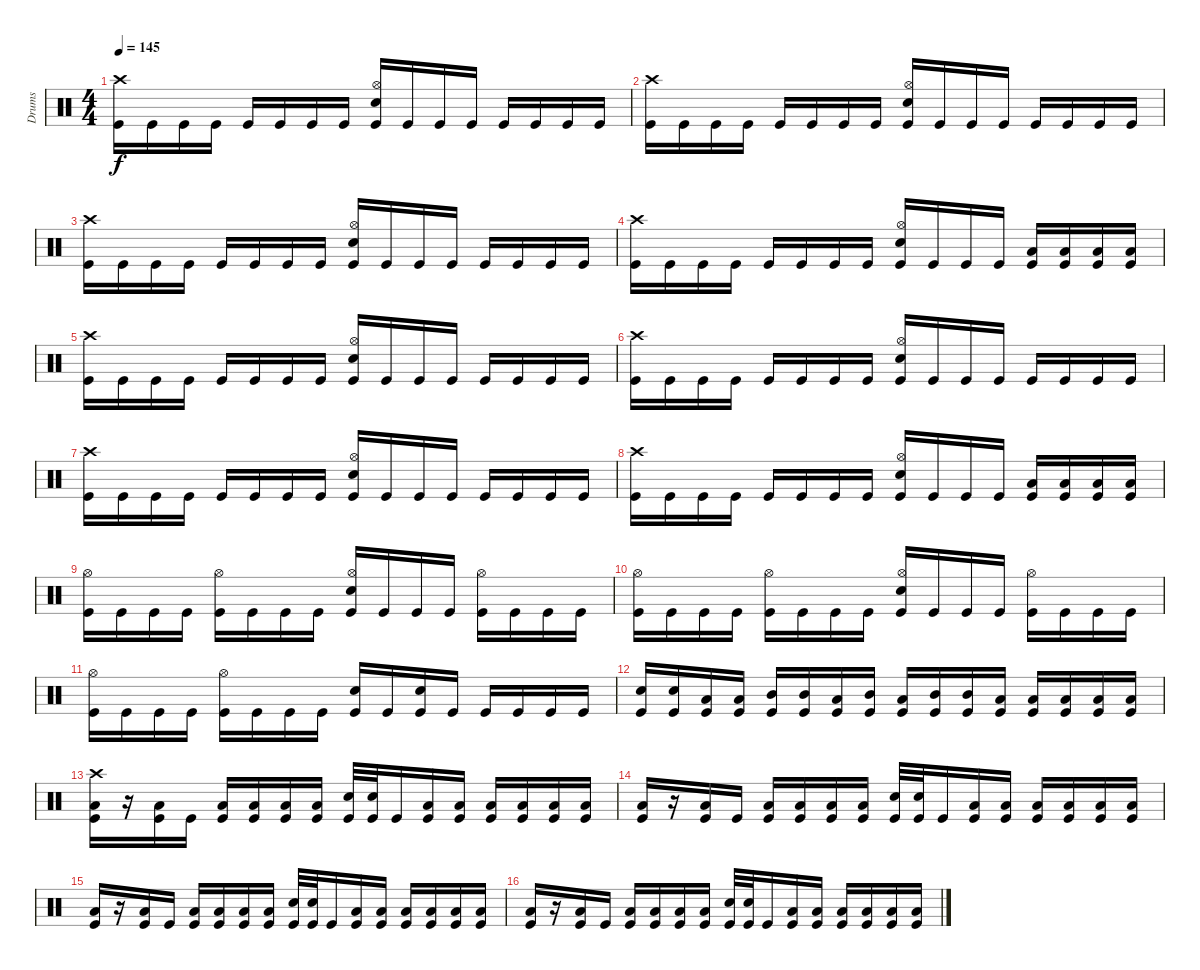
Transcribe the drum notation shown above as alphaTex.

\track ("Drums" "Drums") {instrument percussion}
\staff {score}
\articulation defaults
\ts (4 4)
\tempo 145
\clef neutral
\ks c
("Crash high (hit)" "Kick (hit)").16{dy f} "Kick (hit)".16 "Kick (hit)".16 "Kick (hit)".16 "Kick (hit)".16 "Kick (hit)".16 "Kick (hit)".16 "Kick (hit)".16 ("Hi-Hat (open)" "Electric Snare (hit)" "Kick (hit)").16 "Kick (hit)".16 "Kick (hit)".16 "Kick (hit)".16 "Kick (hit)".16 "Kick (hit)".16 "Kick (hit)".16 "Kick (hit)".16 |
("Crash high (hit)" "Kick (hit)").16 "Kick (hit)".16 "Kick (hit)".16 "Kick (hit)".16 "Kick (hit)".16 "Kick (hit)".16 "Kick (hit)".16 "Kick (hit)".16 ("Hi-Hat (open)" "Electric Snare (hit)" "Kick (hit)").16 "Kick (hit)".16 "Kick (hit)".16 "Kick (hit)".16 "Kick (hit)".16 "Kick (hit)".16 "Kick (hit)".16 "Kick (hit)".16 |
("Crash high (hit)" "Kick (hit)").16 "Kick (hit)".16 "Kick (hit)".16 "Kick (hit)".16 "Kick (hit)".16 "Kick (hit)".16 "Kick (hit)".16 "Kick (hit)".16 ("Hi-Hat (open)" "Electric Snare (hit)" "Kick (hit)").16 "Kick (hit)".16 "Kick (hit)".16 "Kick (hit)".16 "Kick (hit)".16 "Kick (hit)".16 "Kick (hit)".16 "Kick (hit)".16 |
("Crash high (hit)" "Kick (hit)").16 "Kick (hit)".16 "Kick (hit)".16 "Kick (hit)".16 "Kick (hit)".16 "Kick (hit)".16 "Kick (hit)".16 "Kick (hit)".16 ("Hi-Hat (open)" "Electric Snare (hit)" "Kick (hit)").16 "Kick (hit)".16 "Kick (hit)".16 "Kick (hit)".16 ("Low Tom (hit)" "Kick (hit)").16 ("Low Tom (hit)" "Kick (hit)").16 ("Low Tom (hit)" "Kick (hit)").16 ("Low Tom (hit)" "Kick (hit)").16 |
("Crash high (hit)" "Kick (hit)").16 "Kick (hit)".16 "Kick (hit)".16 "Kick (hit)".16 "Kick (hit)".16 "Kick (hit)".16 "Kick (hit)".16 "Kick (hit)".16 ("Hi-Hat (open)" "Electric Snare (hit)" "Kick (hit)").16 "Kick (hit)".16 "Kick (hit)".16 "Kick (hit)".16 "Kick (hit)".16 "Kick (hit)".16 "Kick (hit)".16 "Kick (hit)".16 |
("Crash high (hit)" "Kick (hit)").16 "Kick (hit)".16 "Kick (hit)".16 "Kick (hit)".16 "Kick (hit)".16 "Kick (hit)".16 "Kick (hit)".16 "Kick (hit)".16 ("Hi-Hat (open)" "Electric Snare (hit)" "Kick (hit)").16 "Kick (hit)".16 "Kick (hit)".16 "Kick (hit)".16 "Kick (hit)".16 "Kick (hit)".16 "Kick (hit)".16 "Kick (hit)".16 |
("Crash high (hit)" "Kick (hit)").16 "Kick (hit)".16 "Kick (hit)".16 "Kick (hit)".16 "Kick (hit)".16 "Kick (hit)".16 "Kick (hit)".16 "Kick (hit)".16 ("Hi-Hat (open)" "Electric Snare (hit)" "Kick (hit)").16 "Kick (hit)".16 "Kick (hit)".16 "Kick (hit)".16 "Kick (hit)".16 "Kick (hit)".16 "Kick (hit)".16 "Kick (hit)".16 |
("Crash high (hit)" "Kick (hit)").16 "Kick (hit)".16 "Kick (hit)".16 "Kick (hit)".16 "Kick (hit)".16 "Kick (hit)".16 "Kick (hit)".16 "Kick (hit)".16 ("Hi-Hat (open)" "Electric Snare (hit)" "Kick (hit)").16 "Kick (hit)".16 "Kick (hit)".16 "Kick (hit)".16 ("Low Tom (hit)" "Kick (hit)").16 ("Low Tom (hit)" "Kick (hit)").16 ("Low Tom (hit)" "Kick (hit)").16 ("Low Tom (hit)" "Kick (hit)").16 |
("Hi-Hat (open)" "Kick (hit)").16 "Kick (hit)".16 "Kick (hit)".16 "Kick (hit)".16 ("Hi-Hat (open)" "Kick (hit)").16 "Kick (hit)".16 "Kick (hit)".16 "Kick (hit)".16 ("Hi-Hat (open)" "Electric Snare (hit)" "Kick (hit)").16 "Kick (hit)".16 "Kick (hit)".16 "Kick (hit)".16 ("Hi-Hat (open)" "Kick (hit)").16 "Kick (hit)".16 "Kick (hit)".16 "Kick (hit)".16 |
("Hi-Hat (open)" "Kick (hit)").16 "Kick (hit)".16 "Kick (hit)".16 "Kick (hit)".16 ("Hi-Hat (open)" "Kick (hit)").16 "Kick (hit)".16 "Kick (hit)".16 "Kick (hit)".16 ("Hi-Hat (open)" "Electric Snare (hit)" "Kick (hit)").16 "Kick (hit)".16 "Kick (hit)".16 "Kick (hit)".16 ("Hi-Hat (open)" "Kick (hit)").16 "Kick (hit)".16 "Kick (hit)".16 "Kick (hit)".16 |
("Hi-Hat (open)" "Kick (hit)").16 "Kick (hit)".16 "Kick (hit)".16 "Kick (hit)".16 ("Hi-Hat (open)" "Kick (hit)").16 "Kick (hit)".16 "Kick (hit)".16 "Kick (hit)".16 ("Electric Snare (hit)" "Kick (hit)").16 "Kick (hit)".16 ("Electric Snare (hit)" "Kick (hit)").16 "Kick (hit)".16 "Kick (hit)".16 "Kick (hit)".16 "Kick (hit)".16 "Kick (hit)".16 |
("Electric Snare (hit)" "Kick (hit)").16 ("Electric Snare (hit)" "Kick (hit)").16 ("Low Tom (hit)" "Kick (hit)").16 ("Low Tom (hit)" "Kick (hit)").16 ("Mid Tom (hit)" "Kick (hit)").16 ("Mid Tom (hit)" "Kick (hit)").16 ("Low Tom (hit)" "Kick (hit)").16 ("Mid Tom (hit)" "Kick (hit)").16 ("Low Tom (hit)" "Kick (hit)").16 ("Mid Tom (hit)" "Kick (hit)").16 ("Mid Tom (hit)" "Kick (hit)").16 ("Low Tom (hit)" "Kick (hit)").16 ("Low Tom (hit)" "Kick (hit)").16 ("Low Tom (hit)" "Kick (hit)").16 ("Low Tom (hit)" "Kick (hit)").16 ("Low Tom (hit)" "Kick (hit)").16 |
("Crash high (hit)" "Low Tom (hit)" "Kick (hit)").16 r.16 ("Low Tom (hit)" "Kick (hit)").16 "Kick (hit)".16 ("Low Tom (hit)" "Kick (hit)").16 ("Low Tom (hit)" "Kick (hit)").16 ("Low Tom (hit)" "Kick (hit)").16 ("Low Tom (hit)" "Kick (hit)").16 ("Electric Snare (hit)" "Kick (hit)").32 ("Electric Snare (hit)" "Kick (hit)").32 "Kick (hit)".16 ("Low Tom (hit)" "Kick (hit)").16 ("Low Tom (hit)" "Kick (hit)").16 ("Low Tom (hit)" "Kick (hit)").16 ("Low Tom (hit)" "Kick (hit)").16 ("Low Tom (hit)" "Kick (hit)").16 ("Low Tom (hit)" "Kick (hit)").16 |
("Low Tom (hit)" "Kick (hit)").16 r.16 ("Low Tom (hit)" "Kick (hit)").16 "Kick (hit)".16 ("Low Tom (hit)" "Kick (hit)").16 ("Low Tom (hit)" "Kick (hit)").16 ("Low Tom (hit)" "Kick (hit)").16 ("Low Tom (hit)" "Kick (hit)").16 ("Electric Snare (hit)" "Kick (hit)").32 ("Electric Snare (hit)" "Kick (hit)").32 "Kick (hit)".16 ("Low Tom (hit)" "Kick (hit)").16 ("Low Tom (hit)" "Kick (hit)").16 ("Low Tom (hit)" "Kick (hit)").16 ("Low Tom (hit)" "Kick (hit)").16 ("Low Tom (hit)" "Kick (hit)").16 ("Low Tom (hit)" "Kick (hit)").16 |
("Low Tom (hit)" "Kick (hit)").16 r.16 ("Low Tom (hit)" "Kick (hit)").16 "Kick (hit)".16 ("Low Tom (hit)" "Kick (hit)").16 ("Low Tom (hit)" "Kick (hit)").16 ("Low Tom (hit)" "Kick (hit)").16 ("Low Tom (hit)" "Kick (hit)").16 ("Electric Snare (hit)" "Kick (hit)").32 ("Electric Snare (hit)" "Kick (hit)").32 "Kick (hit)".16 ("Low Tom (hit)" "Kick (hit)").16 ("Low Tom (hit)" "Kick (hit)").16 ("Low Tom (hit)" "Kick (hit)").16 ("Low Tom (hit)" "Kick (hit)").16 ("Low Tom (hit)" "Kick (hit)").16 ("Low Tom (hit)" "Kick (hit)").16 |
("Low Tom (hit)" "Kick (hit)").16 r.16 ("Low Tom (hit)" "Kick (hit)").16 "Kick (hit)".16 ("Low Tom (hit)" "Kick (hit)").16 ("Low Tom (hit)" "Kick (hit)").16 ("Low Tom (hit)" "Kick (hit)").16 ("Low Tom (hit)" "Kick (hit)").16 ("Electric Snare (hit)" "Kick (hit)").32 ("Electric Snare (hit)" "Kick (hit)").32 "Kick (hit)".16 ("Low Tom (hit)" "Kick (hit)").16 ("Low Tom (hit)" "Kick (hit)").16 ("Low Tom (hit)" "Kick (hit)").16 ("Low Tom (hit)" "Kick (hit)").16 ("Low Tom (hit)" "Kick (hit)").16 ("Low Tom (hit)" "Kick (hit)").16
